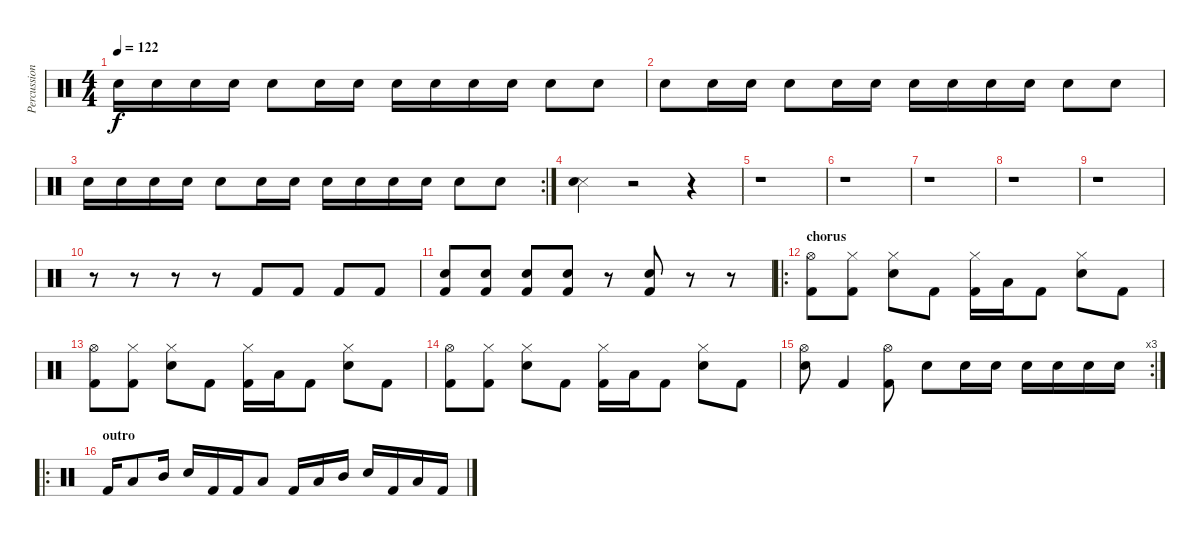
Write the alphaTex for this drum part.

\track ("Percussion" "Percussion") {instrument percussion}
\staff {score}
\articulation defaults
\ts (4 4)
\tempo 122
\clef neutral
\ks c "Electric Snare (hit)".16{dy f} "Electric Snare (hit)".16 "Electric Snare (hit)".16 "Electric Snare (hit)".16 "Electric Snare (hit)".8 "Electric Snare (hit)".16 "Electric Snare (hit)".16 "Electric Snare (hit)".16 "Electric Snare (hit)".16 "Electric Snare (hit)".16 "Electric Snare (hit)".16 "Electric Snare (hit)".8 "Electric Snare (hit)".8
|
"Electric Snare (hit)".8 "Electric Snare (hit)".16 "Electric Snare (hit)".16 "Electric Snare (hit)".8 "Electric Snare (hit)".16 "Electric Snare (hit)".16 "Electric Snare (hit)".16 "Electric Snare (hit)".16 "Electric Snare (hit)".16 "Electric Snare (hit)".16 "Electric Snare (hit)".8 "Electric Snare (hit)".8 |
\rc 2 "Electric Snare (hit)".16 "Electric Snare (hit)".16 "Electric Snare (hit)".16 "Electric Snare (hit)".16 "Electric Snare (hit)".8 "Electric Snare (hit)".16 "Electric Snare (hit)".16 "Electric Snare (hit)".16 "Electric Snare (hit)".16 "Electric Snare (hit)".16 "Electric Snare (hit)".16 "Electric Snare (hit)".8 "Electric Snare (hit)".8
|
("Snare (side stick) 3" "Electric Snare (hit)").4 r.2 r.4 |
r.1 |
r.1 |
r.1 |
r.1 |
r.1 |
r.8 r.8 r.8 r.8 "Kick (hit) 2".8 "Kick (hit) 2".8 "Kick (hit) 2".8 "Kick (hit) 2".8 |
("Electric Snare (hit)" "Kick (hit) 2").8 ("Electric Snare (hit)" "Kick (hit) 2").8 ("Electric Snare (hit)" "Kick (hit) 2").8 ("Electric Snare (hit)" "Kick (hit) 2").8 r.8 ("Electric Snare (hit)" "Kick (hit) 2").8 r.8 r.8 |
\ro
\section ("" "chorus")
("Hi-Hat (open)" "Kick (hit) 2").8 ("Hi-Hat (closed)" "Kick (hit) 2").8 ("Hi-Hat (closed)" "Electric Snare (hit)").8 "Kick (hit) 2".8 ("Hi-Hat (closed)" "Kick (hit) 2").16 "Low Tom (hit)".16 "Kick (hit) 2".8 ("Hi-Hat (closed)" "Electric Snare (hit)").8 "Kick (hit) 2".8 |
("Hi-Hat (open)" "Kick (hit) 2").8 ("Hi-Hat (closed)" "Kick (hit) 2").8 ("Hi-Hat (closed)" "Electric Snare (hit)").8 "Kick (hit) 2".8 ("Hi-Hat (closed)" "Kick (hit) 2").16 "Low Tom (hit)".16 "Kick (hit) 2".8 ("Hi-Hat (closed)" "Electric Snare (hit)").8 "Kick (hit) 2".8 |
("Hi-Hat (open)" "Kick (hit) 2").8 ("Hi-Hat (closed)" "Kick (hit) 2").8 ("Hi-Hat (closed)" "Electric Snare (hit)").8 "Kick (hit) 2".8 ("Hi-Hat (closed)" "Kick (hit) 2").16 "Low Tom (hit)".16 "Kick (hit) 2".8 ("Hi-Hat (closed)" "Electric Snare (hit)").8 "Kick (hit) 2".8 |
\rc 3
("Hi-Hat (open)" "Electric Snare (hit)").8 "Kick (hit) 2".4 ("Hi-Hat (open)" "Kick (hit) 2").8 "Electric Snare (hit)".8 "Electric Snare (hit)".16 "Electric Snare (hit)".16 "Electric Snare (hit)".16 "Electric Snare (hit)".16 "Electric Snare (hit)".16 "Electric Snare (hit)".16 |
\ro
\section ("" "outro")
"Kick (hit) 2".16 "Low Tom (hit)".8 "Mid Tom (hit)".16 "Electric Snare (hit)".16 "Kick (hit) 2".16 "Kick (hit) 2".16 "Low Tom (hit)".8 "Kick (hit) 2".16 "Low Tom (hit)".16 "Mid Tom (hit)".16 "Electric Snare (hit)".16 "Kick (hit) 2".16 "Low Tom (hit)".16 "Kick (hit) 2".16
